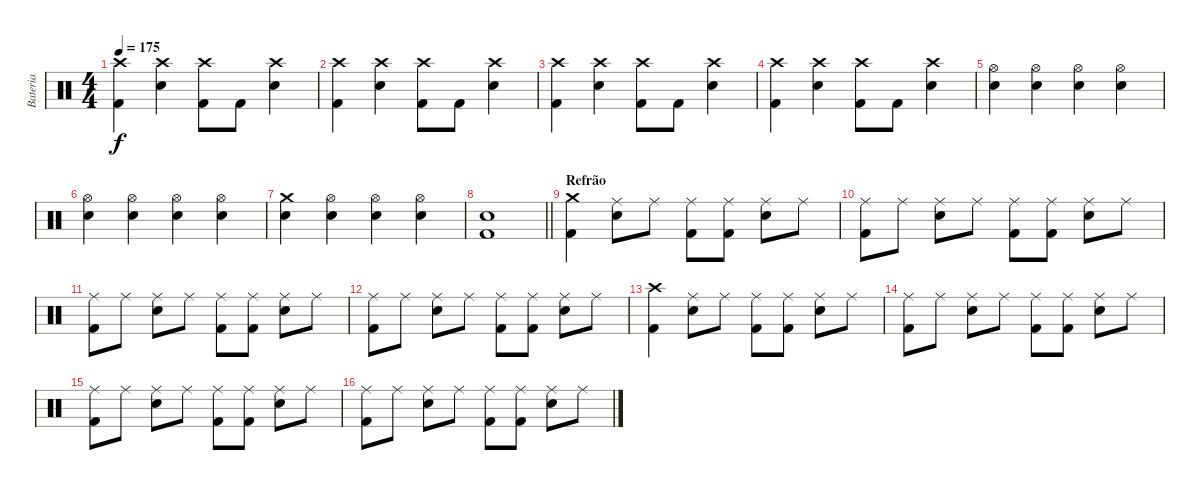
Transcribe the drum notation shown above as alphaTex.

\track ("Bateria" "Bateria") {instrument percussion}
\staff {score}
\articulation defaults
\ts (4 4)
\tempo 175
\clef neutral
\ks c
("Crash high (hit)" "Kick (hit) 2").4{dy f} ("Crash high (hit)" "Electric Snare (hit)").4 ("Crash high (hit)" "Kick (hit) 2").8 "Kick (hit) 2".8 ("Crash high (hit)" "Electric Snare (hit)").4 |
("Crash high (hit)" "Kick (hit) 2").4 ("Crash high (hit)" "Electric Snare (hit)").4 ("Crash high (hit)" "Kick (hit) 2").8 "Kick (hit) 2".8 ("Crash high (hit)" "Electric Snare (hit)").4 |
("Crash high (hit)" "Kick (hit) 2").4 ("Crash high (hit)" "Electric Snare (hit)").4 ("Crash high (hit)" "Kick (hit) 2").8 "Kick (hit) 2".8 ("Crash high (hit)" "Electric Snare (hit)").4 |
("Crash high (hit)" "Kick (hit) 2").4 ("Crash high (hit)" "Electric Snare (hit)").4 ("Crash high (hit)" "Kick (hit) 2").8 "Kick (hit) 2".8 ("Crash high (hit)" "Electric Snare (hit)").4 |
("Hi-Hat (open)" "Electric Snare (hit)").4 ("Hi-Hat (open)" "Electric Snare (hit)").4 ("Hi-Hat (open)" "Electric Snare (hit)").4 ("Hi-Hat (open)" "Electric Snare (hit)").4 |
("Hi-Hat (open)" "Electric Snare (hit)").4 ("Hi-Hat (open)" "Electric Snare (hit)").4 ("Hi-Hat (open)" "Electric Snare (hit)").4 ("Hi-Hat (open)" "Electric Snare (hit)").4 |
("Crash medium (hit)" "Electric Snare (hit)").4 ("Hi-Hat (open)" "Electric Snare (hit)").4 ("Hi-Hat (open)" "Electric Snare (hit)").4 ("Hi-Hat (open)" "Electric Snare (hit)").4 |
\barLineRight lightlight
("Kick (hit) 2" "Electric Snare (hit)").1 |
\section ("" "Refrão")
("Crash medium (hit)" "Kick (hit) 2").4 ("Ride (middle)" "Electric Snare (hit)").8 "Ride (middle)".8 ("Ride (middle)" "Kick (hit) 2").8 ("Ride (middle)" "Kick (hit) 2").8 ("Ride (middle)" "Electric Snare (hit)").8 "Ride (middle)".8 |
("Ride (middle)" "Kick (hit) 2").8 "Ride (middle)".8 ("Ride (middle)" "Electric Snare (hit)").8 "Ride (middle)".8 ("Ride (middle)" "Kick (hit) 2").8 ("Ride (middle)" "Kick (hit) 2").8 ("Ride (middle)" "Electric Snare (hit)").8 "Ride (middle)".8 |
("Ride (middle)" "Kick (hit) 2").8 "Ride (middle)".8 ("Ride (middle)" "Electric Snare (hit)").8 "Ride (middle)".8 ("Ride (middle)" "Kick (hit) 2").8 ("Ride (middle)" "Kick (hit) 2").8 ("Ride (middle)" "Electric Snare (hit)").8 "Ride (middle)".8 |
("Ride (middle)" "Kick (hit) 2").8 "Ride (middle)".8 ("Ride (middle)" "Electric Snare (hit)").8 "Ride (middle)".8 ("Ride (middle)" "Kick (hit) 2").8 ("Ride (middle)" "Kick (hit) 2").8 ("Ride (middle)" "Electric Snare (hit)").8 "Ride (middle)".8 |
("Crash high (hit)" "Kick (hit) 2").4 ("Ride (middle)" "Electric Snare (hit)").8 "Ride (middle)".8 ("Ride (middle)" "Kick (hit) 2").8 ("Ride (middle)" "Kick (hit) 2").8 ("Ride (middle)" "Electric Snare (hit)").8 "Ride (middle)".8 |
("Ride (middle)" "Kick (hit) 2").8 "Ride (middle)".8 ("Ride (middle)" "Electric Snare (hit)").8 "Ride (middle)".8 ("Ride (middle)" "Kick (hit) 2").8 ("Ride (middle)" "Kick (hit) 2").8 ("Ride (middle)" "Electric Snare (hit)").8 "Ride (middle)".8 |
("Ride (middle)" "Kick (hit) 2").8 "Ride (middle)".8 ("Ride (middle)" "Electric Snare (hit)").8 "Ride (middle)".8 ("Ride (middle)" "Kick (hit) 2").8 ("Ride (middle)" "Kick (hit) 2").8 ("Ride (middle)" "Electric Snare (hit)").8 "Ride (middle)".8 |
("Ride (middle)" "Kick (hit) 2").8 "Ride (middle)".8 ("Ride (middle)" "Electric Snare (hit)").8 "Ride (middle)".8 ("Ride (middle)" "Kick (hit) 2").8 ("Ride (middle)" "Kick (hit) 2").8 ("Ride (middle)" "Electric Snare (hit)").8 "Ride (middle)".8
